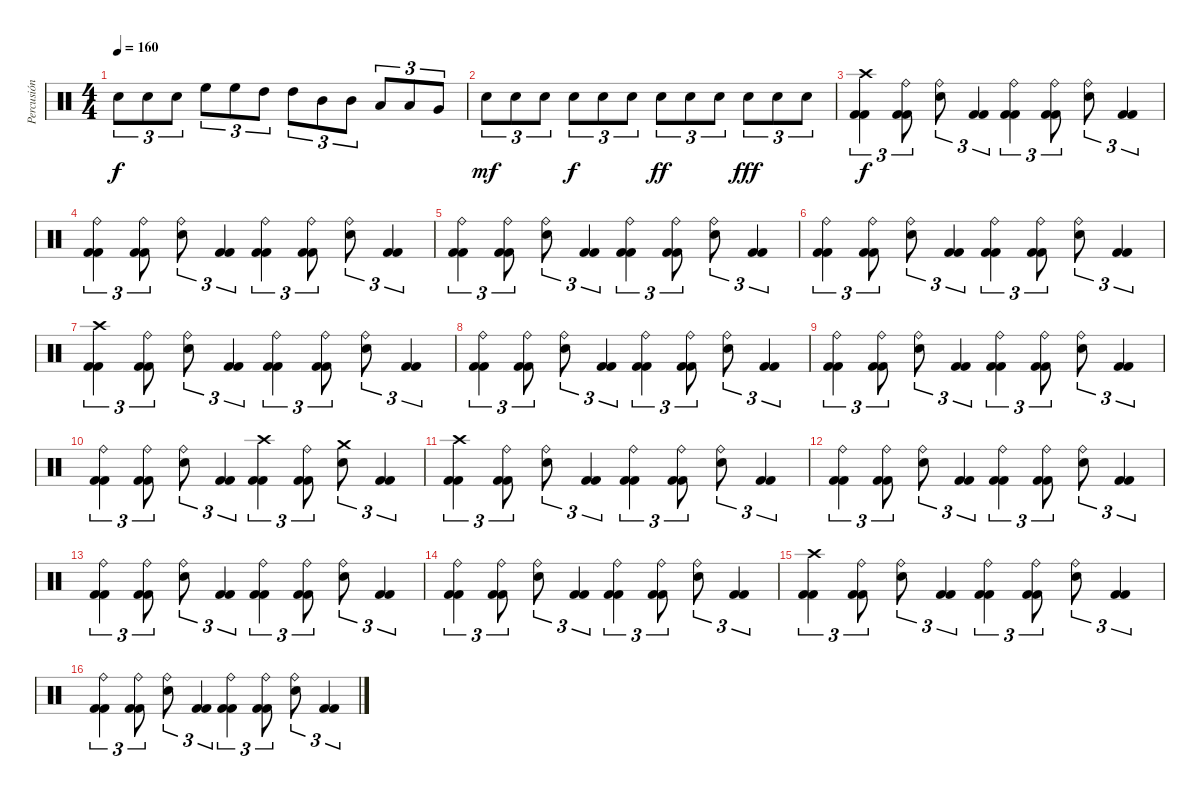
\track ("Percusión" "Percusión") {instrument percussion}
\staff {score}
\articulation defaults
\ts (4 4)
\tempo 160
\clef neutral
\ks c "Snare (hit) 2".8{tu (3 2) dy f} "Snare (hit) 2".8{tu (3 2)} "Snare (hit) 2".8{tu (3 2)} "High Floor Tom (hit)".8{tu (3 2)} "High Floor Tom (hit)".8{tu (3 2)} "High Tom (hit)".8{tu (3 2)} "High Tom (hit)".8{tu (3 2)} "Mid Tom (hit)".8{tu (3 2)} "Mid Tom (hit)".8{tu (3 2)} "Low Tom (hit)".8{tu (3 2)} "Low Tom (hit)".8{tu (3 2)} "Very Low Tom (hit)".8{tu (3 2)}
|
"Snare (hit) 2".8{tu (3 2) dy mf} "Snare (hit) 2".8{tu (3 2)} "Snare (hit) 2".8{tu (3 2)} "Snare (hit) 2".8{tu (3 2) dy f} "Snare (hit) 2".8{tu (3 2)} "Snare (hit) 2".8{tu (3 2)} "Snare (hit) 2".8{tu (3 2) dy ff} "Snare (hit) 2".8{tu (3 2)} "Snare (hit) 2".8{tu (3 2)} "Snare (hit) 2".8{tu (3 2) dy fff} "Snare (hit) 2".8{tu (3 2)} "Snare (hit) 2".8{tu (3 2)} |
("Crash high (hit)" "Kick (hit) 2" "Kick (hit) 2").4{tu (3 2) dy f} ("Ride (bell)" "Kick (hit) 2" "Kick (hit) 2").8{tu (3 2)} ("Ride (bell)" "Snare (hit) 2").8{tu (3 2)} ("Kick (hit) 2" "Kick (hit) 2").4{tu (3 2)} ("Ride (bell)" "Kick (hit) 2" "Kick (hit) 2").4{tu (3 2)} ("Ride (bell)" "Kick (hit) 2" "Kick (hit) 2").8{tu (3 2)} ("Ride (bell)" "Snare (hit) 2").8{tu (3 2)} ("Kick (hit) 2" "Kick (hit) 2").4{tu (3 2)} |
("Ride (bell)" "Kick (hit) 2" "Kick (hit) 2").4{tu (3 2)} ("Ride (bell)" "Kick (hit) 2" "Kick (hit) 2").8{tu (3 2)} ("Ride (bell)" "Snare (hit) 2").8{tu (3 2)} ("Kick (hit) 2" "Kick (hit) 2").4{tu (3 2)} ("Ride (bell)" "Kick (hit) 2" "Kick (hit) 2").4{tu (3 2)} ("Ride (bell)" "Kick (hit) 2" "Kick (hit) 2").8{tu (3 2)} ("Ride (bell)" "Snare (hit) 2").8{tu (3 2)} ("Kick (hit) 2" "Kick (hit) 2").4{tu (3 2)} |
("Ride (bell)" "Kick (hit) 2" "Kick (hit) 2").4{tu (3 2)} ("Ride (bell)" "Kick (hit) 2" "Kick (hit) 2").8{tu (3 2)} ("Ride (bell)" "Snare (hit) 2").8{tu (3 2)} ("Kick (hit) 2" "Kick (hit) 2").4{tu (3 2)} ("Ride (bell)" "Kick (hit) 2" "Kick (hit) 2").4{tu (3 2)} ("Ride (bell)" "Kick (hit) 2" "Kick (hit) 2").8{tu (3 2)} ("Ride (bell)" "Snare (hit) 2").8{tu (3 2)} ("Kick (hit) 2" "Kick (hit) 2").4{tu (3 2)} |
("Ride (bell)" "Kick (hit) 2" "Kick (hit) 2").4{tu (3 2)} ("Ride (bell)" "Kick (hit) 2" "Kick (hit) 2").8{tu (3 2)} ("Ride (bell)" "Snare (hit) 2").8{tu (3 2)} ("Kick (hit) 2" "Kick (hit) 2").4{tu (3 2)} ("Ride (bell)" "Kick (hit) 2" "Kick (hit) 2").4{tu (3 2)} ("Ride (bell)" "Kick (hit) 2" "Kick (hit) 2").8{tu (3 2)} ("Ride (bell)" "Snare (hit) 2").8{tu (3 2)} ("Kick (hit) 2" "Kick (hit) 2").4{tu (3 2)} |
("Crash high (hit)" "Kick (hit) 2" "Kick (hit) 2").4{tu (3 2)} ("Ride (bell)" "Kick (hit) 2" "Kick (hit) 2").8{tu (3 2)} ("Ride (bell)" "Snare (hit) 2").8{tu (3 2)} ("Kick (hit) 2" "Kick (hit) 2").4{tu (3 2)} ("Ride (bell)" "Kick (hit) 2" "Kick (hit) 2").4{tu (3 2)} ("Ride (bell)" "Kick (hit) 2" "Kick (hit) 2").8{tu (3 2)} ("Ride (bell)" "Snare (hit) 2").8{tu (3 2)} ("Kick (hit) 2" "Kick (hit) 2").4{tu (3 2)} |
("Ride (bell)" "Kick (hit) 2" "Kick (hit) 2").4{tu (3 2)} ("Ride (bell)" "Kick (hit) 2" "Kick (hit) 2").8{tu (3 2)} ("Ride (bell)" "Snare (hit) 2").8{tu (3 2)} ("Kick (hit) 2" "Kick (hit) 2").4{tu (3 2)} ("Ride (bell)" "Kick (hit) 2" "Kick (hit) 2").4{tu (3 2)} ("Ride (bell)" "Kick (hit) 2" "Kick (hit) 2").8{tu (3 2)} ("Ride (bell)" "Snare (hit) 2").8{tu (3 2)} ("Kick (hit) 2" "Kick (hit) 2").4{tu (3 2)} |
("Ride (bell)" "Kick (hit) 2" "Kick (hit) 2").4{tu (3 2)} ("Ride (bell)" "Kick (hit) 2" "Kick (hit) 2").8{tu (3 2)} ("Ride (bell)" "Snare (hit) 2").8{tu (3 2)} ("Kick (hit) 2" "Kick (hit) 2").4{tu (3 2)} ("Ride (bell)" "Kick (hit) 2" "Kick (hit) 2").4{tu (3 2)} ("Ride (bell)" "Kick (hit) 2" "Kick (hit) 2").8{tu (3 2)} ("Ride (bell)" "Snare (hit) 2").8{tu (3 2)} ("Kick (hit) 2" "Kick (hit) 2").4{tu (3 2)} |
("Ride (bell)" "Kick (hit) 2" "Kick (hit) 2").4{tu (3 2)} ("Ride (bell)" "Kick (hit) 2" "Kick (hit) 2").8{tu (3 2)} ("Ride (bell)" "Snare (hit) 2").8{tu (3 2)} ("Kick (hit) 2" "Kick (hit) 2").4{tu (3 2)} ("Crash high (hit)" "Kick (hit) 2" "Kick (hit) 2").4{tu (3 2)} ("Ride (bell)" "Kick (hit) 2" "Kick (hit) 2").8{tu (3 2)} ("Crash medium (hit)" "Snare (hit) 2").8{tu (3 2)} ("Kick (hit) 2" "Kick (hit) 2").4{tu (3 2)} |
("Crash high (hit)" "Kick (hit) 2" "Kick (hit) 2").4{tu (3 2)} ("Ride (bell)" "Kick (hit) 2" "Kick (hit) 2").8{tu (3 2)} ("Ride (bell)" "Snare (hit) 2").8{tu (3 2)} ("Kick (hit) 2" "Kick (hit) 2").4{tu (3 2)} ("Ride (bell)" "Kick (hit) 2" "Kick (hit) 2").4{tu (3 2)} ("Ride (bell)" "Kick (hit) 2" "Kick (hit) 2").8{tu (3 2)} ("Ride (bell)" "Snare (hit) 2").8{tu (3 2)} ("Kick (hit) 2" "Kick (hit) 2").4{tu (3 2)} |
("Ride (bell)" "Kick (hit) 2" "Kick (hit) 2").4{tu (3 2)} ("Ride (bell)" "Kick (hit) 2" "Kick (hit) 2").8{tu (3 2)} ("Ride (bell)" "Snare (hit) 2").8{tu (3 2)} ("Kick (hit) 2" "Kick (hit) 2").4{tu (3 2)} ("Ride (bell)" "Kick (hit) 2" "Kick (hit) 2").4{tu (3 2)} ("Ride (bell)" "Kick (hit) 2" "Kick (hit) 2").8{tu (3 2)} ("Ride (bell)" "Snare (hit) 2").8{tu (3 2)} ("Kick (hit) 2" "Kick (hit) 2").4{tu (3 2)} |
("Ride (bell)" "Kick (hit) 2" "Kick (hit) 2").4{tu (3 2)} ("Ride (bell)" "Kick (hit) 2" "Kick (hit) 2").8{tu (3 2)} ("Ride (bell)" "Snare (hit) 2").8{tu (3 2)} ("Kick (hit) 2" "Kick (hit) 2").4{tu (3 2)} ("Ride (bell)" "Kick (hit) 2" "Kick (hit) 2").4{tu (3 2)} ("Ride (bell)" "Kick (hit) 2" "Kick (hit) 2").8{tu (3 2)} ("Ride (bell)" "Snare (hit) 2").8{tu (3 2)} ("Kick (hit) 2" "Kick (hit) 2").4{tu (3 2)} |
("Ride (bell)" "Kick (hit) 2" "Kick (hit) 2").4{tu (3 2)} ("Ride (bell)" "Kick (hit) 2" "Kick (hit) 2").8{tu (3 2)} ("Ride (bell)" "Snare (hit) 2").8{tu (3 2)} ("Kick (hit) 2" "Kick (hit) 2").4{tu (3 2)} ("Ride (bell)" "Kick (hit) 2" "Kick (hit) 2").4{tu (3 2)} ("Ride (bell)" "Kick (hit) 2" "Kick (hit) 2").8{tu (3 2)} ("Ride (bell)" "Snare (hit) 2").8{tu (3 2)} ("Kick (hit) 2" "Kick (hit) 2").4{tu (3 2)} |
("Crash high (hit)" "Kick (hit) 2" "Kick (hit) 2").4{tu (3 2)} ("Ride (bell)" "Kick (hit) 2" "Kick (hit) 2").8{tu (3 2)} ("Ride (bell)" "Snare (hit) 2").8{tu (3 2)} ("Kick (hit) 2" "Kick (hit) 2").4{tu (3 2)} ("Ride (bell)" "Kick (hit) 2" "Kick (hit) 2").4{tu (3 2)} ("Ride (bell)" "Kick (hit) 2" "Kick (hit) 2").8{tu (3 2)} ("Ride (bell)" "Snare (hit) 2").8{tu (3 2)} ("Kick (hit) 2" "Kick (hit) 2").4{tu (3 2)} |
("Ride (bell)" "Kick (hit) 2" "Kick (hit) 2").4{tu (3 2)} ("Ride (bell)" "Kick (hit) 2" "Kick (hit) 2").8{tu (3 2)} ("Ride (bell)" "Snare (hit) 2").8{tu (3 2)} ("Kick (hit) 2" "Kick (hit) 2").4{tu (3 2)} ("Ride (bell)" "Kick (hit) 2" "Kick (hit) 2").4{tu (3 2)} ("Ride (bell)" "Kick (hit) 2" "Kick (hit) 2").8{tu (3 2)} ("Ride (bell)" "Snare (hit) 2").8{tu (3 2)} ("Kick (hit) 2" "Kick (hit) 2").4{tu (3 2)}
